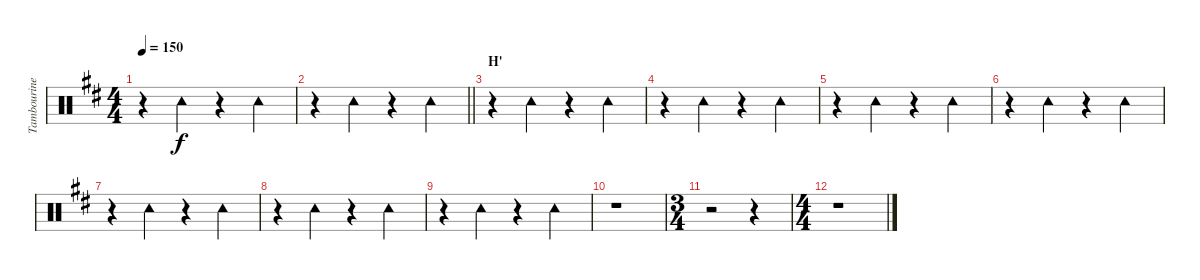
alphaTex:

\track ("Tambourine" "Tambourine") {instrument percussion}
\staff {score}
\articulation defaults
\ts (4 4)
\tempo 150
\clef neutral
\ks d
r.4{dy f} "Tambourine (hit)".4 r.4 "Tambourine (hit)".4 |
\barLineRight lightlight
r.4 "Tambourine (hit)".4 r.4 "Tambourine (hit)".4 |
\section ("" "H'")
r.4 "Tambourine (hit)".4 r.4 "Tambourine (hit)".4 |
r.4 "Tambourine (hit)".4 r.4 "Tambourine (hit)".4 |
r.4 "Tambourine (hit)".4 r.4 "Tambourine (hit)".4 |
r.4 "Tambourine (hit)".4 r.4 "Tambourine (hit)".4 |
r.4 "Tambourine (hit)".4 r.4 "Tambourine (hit)".4 |
r.4 "Tambourine (hit)".4 r.4 "Tambourine (hit)".4 |
r.4 "Tambourine (hit)".4 r.4 "Tambourine (hit)".4 |
r.1 |
\ts (3 4)
r.2 r.4 |
\ts (4 4)
r.1
